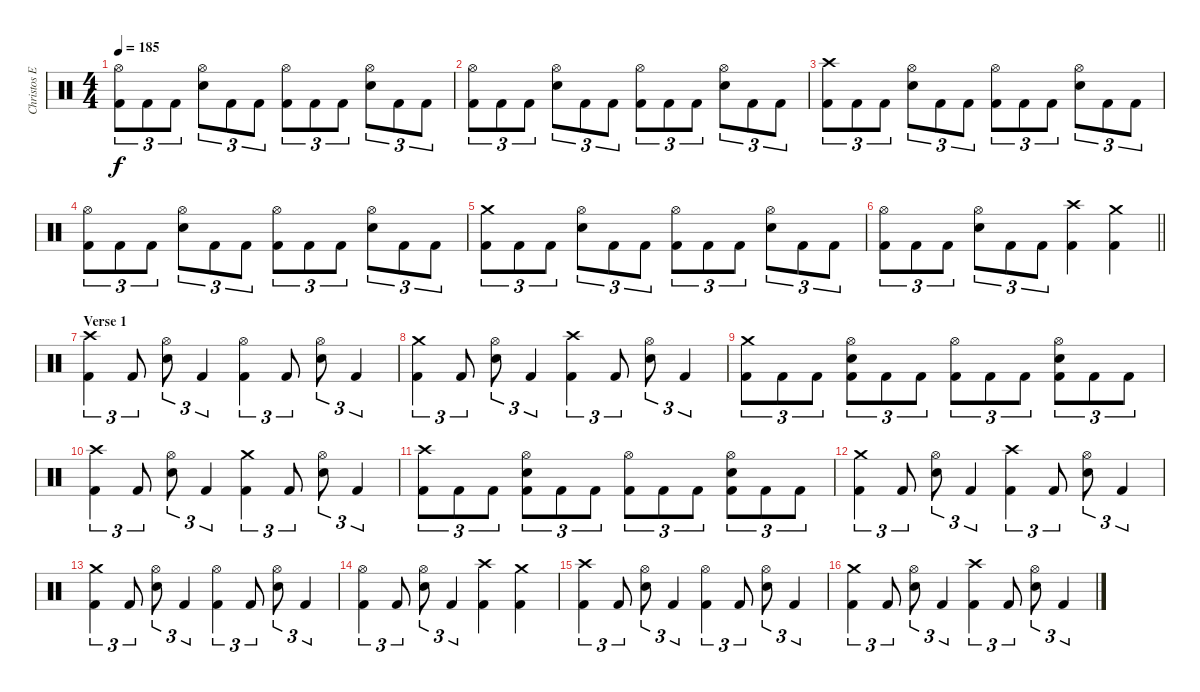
\track ("Christos Ephitimiadis (drums)" "Christos E") {instrument percussion}
\staff {score}
\articulation defaults
\ts (4 4)
\tempo 185
\clef neutral
\ks c
("Hi-Hat (open)" "Kick (hit) 2").8{tu (3 2) dy f} "Kick (hit) 2".8{tu (3 2)} "Kick (hit) 2".8{tu (3 2)} ("Hi-Hat (open)" "Snare (hit) 2").8{tu (3 2)} "Kick (hit) 2".8{tu (3 2)} "Kick (hit) 2".8{tu (3 2)} ("Hi-Hat (open)" "Kick (hit) 2").8{tu (3 2)} "Kick (hit) 2".8{tu (3 2)} "Kick (hit) 2".8{tu (3 2)} ("Hi-Hat (open)" "Snare (hit) 2").8{tu (3 2)} "Kick (hit) 2".8{tu (3 2)} "Kick (hit) 2".8{tu (3 2)} |
("Hi-Hat (open)" "Kick (hit) 2").8{tu (3 2)} "Kick (hit) 2".8{tu (3 2)} "Kick (hit) 2".8{tu (3 2)} ("Hi-Hat (open)" "Snare (hit) 2").8{tu (3 2)} "Kick (hit) 2".8{tu (3 2)} "Kick (hit) 2".8{tu (3 2)} ("Hi-Hat (open)" "Kick (hit) 2").8{tu (3 2)} "Kick (hit) 2".8{tu (3 2)} "Kick (hit) 2".8{tu (3 2)} ("Hi-Hat (open)" "Snare (hit) 2").8{tu (3 2)} "Kick (hit) 2".8{tu (3 2)} "Kick (hit) 2".8{tu (3 2)} |
("Crash high (hit)" "Kick (hit) 2").8{tu (3 2)} "Kick (hit) 2".8{tu (3 2)} "Kick (hit) 2".8{tu (3 2)} ("Hi-Hat (open)" "Snare (hit) 2").8{tu (3 2)} "Kick (hit) 2".8{tu (3 2)} "Kick (hit) 2".8{tu (3 2)} ("Hi-Hat (open)" "Kick (hit) 2").8{tu (3 2)} "Kick (hit) 2".8{tu (3 2)} "Kick (hit) 2".8{tu (3 2)} ("Hi-Hat (open)" "Snare (hit) 2").8{tu (3 2)} "Kick (hit) 2".8{tu (3 2)} "Kick (hit) 2".8{tu (3 2)} |
("Hi-Hat (open)" "Kick (hit) 2").8{tu (3 2)} "Kick (hit) 2".8{tu (3 2)} "Kick (hit) 2".8{tu (3 2)} ("Hi-Hat (open)" "Snare (hit) 2").8{tu (3 2)} "Kick (hit) 2".8{tu (3 2)} "Kick (hit) 2".8{tu (3 2)} ("Hi-Hat (open)" "Kick (hit) 2").8{tu (3 2)} "Kick (hit) 2".8{tu (3 2)} "Kick (hit) 2".8{tu (3 2)} ("Hi-Hat (open)" "Snare (hit) 2").8{tu (3 2)} "Kick (hit) 2".8{tu (3 2)} "Kick (hit) 2".8{tu (3 2)} |
("Crash medium (hit)" "Kick (hit) 2").8{tu (3 2)} "Kick (hit) 2".8{tu (3 2)} "Kick (hit) 2".8{tu (3 2)} ("Hi-Hat (open)" "Snare (hit) 2").8{tu (3 2)} "Kick (hit) 2".8{tu (3 2)} "Kick (hit) 2".8{tu (3 2)} ("Hi-Hat (open)" "Kick (hit) 2").8{tu (3 2)} "Kick (hit) 2".8{tu (3 2)} "Kick (hit) 2".8{tu (3 2)} ("Hi-Hat (open)" "Snare (hit) 2").8{tu (3 2)} "Kick (hit) 2".8{tu (3 2)} "Kick (hit) 2".8{tu (3 2)} |
\barLineRight lightlight
("Hi-Hat (open)" "Kick (hit) 2").8{tu (3 2)} "Kick (hit) 2".8{tu (3 2)} "Kick (hit) 2".8{tu (3 2)} ("Hi-Hat (open)" "Snare (hit) 2").8{tu (3 2)} "Kick (hit) 2".8{tu (3 2)} "Kick (hit) 2".8{tu (3 2)} ("Crash high (hit)" "Kick (hit) 2").4 ("Crash medium (hit)" "Kick (hit) 2").4 |
\section ("" "Verse 1")
("Crash high (hit)" "Kick (hit) 2").4{tu (3 2)} "Kick (hit) 2".8{tu (3 2)} ("Hi-Hat (open)" "Snare (hit) 2").8{tu (3 2)} "Kick (hit) 2".4{tu (3 2)} ("Hi-Hat (open)" "Kick (hit) 2").4{tu (3 2)} "Kick (hit) 2".8{tu (3 2)} ("Hi-Hat (open)" "Snare (hit) 2").8{tu (3 2)} "Kick (hit) 2".4{tu (3 2)} |
("Crash medium (hit)" "Kick (hit) 2").4{tu (3 2)} "Kick (hit) 2".8{tu (3 2)} ("Hi-Hat (open)" "Snare (hit) 2").8{tu (3 2)} "Kick (hit) 2".4{tu (3 2)} ("Crash high (hit)" "Kick (hit) 2").4{tu (3 2)} "Kick (hit) 2".8{tu (3 2)} ("Hi-Hat (open)" "Snare (hit) 2").8{tu (3 2)} "Kick (hit) 2".4{tu (3 2)} |
("Crash medium (hit)" "Kick (hit) 2").8{tu (3 2)} "Kick (hit) 2".8{tu (3 2)} "Kick (hit) 2".8{tu (3 2)} ("Hi-Hat (open)" "Snare (hit) 2" "Kick (hit) 2").8{tu (3 2)} "Kick (hit) 2".8{tu (3 2)} "Kick (hit) 2".8{tu (3 2)} ("Hi-Hat (open)" "Kick (hit) 2").8{tu (3 2)} "Kick (hit) 2".8{tu (3 2)} "Kick (hit) 2".8{tu (3 2)} ("Hi-Hat (open)" "Snare (hit) 2" "Kick (hit) 2").8{tu (3 2)} "Kick (hit) 2".8{tu (3 2)} "Kick (hit) 2".8{tu (3 2)} |
("Crash high (hit)" "Kick (hit) 2").4{tu (3 2)} "Kick (hit) 2".8{tu (3 2)} ("Hi-Hat (open)" "Snare (hit) 2").8{tu (3 2)} "Kick (hit) 2".4{tu (3 2)} ("Crash medium (hit)" "Kick (hit) 2").4{tu (3 2)} "Kick (hit) 2".8{tu (3 2)} ("Hi-Hat (open)" "Snare (hit) 2").8{tu (3 2)} "Kick (hit) 2".4{tu (3 2)} |
("Crash high (hit)" "Kick (hit) 2").8{tu (3 2)} "Kick (hit) 2".8{tu (3 2)} "Kick (hit) 2".8{tu (3 2)} ("Hi-Hat (open)" "Snare (hit) 2" "Kick (hit) 2").8{tu (3 2)} "Kick (hit) 2".8{tu (3 2)} "Kick (hit) 2".8{tu (3 2)} ("Hi-Hat (open)" "Kick (hit) 2").8{tu (3 2)} "Kick (hit) 2".8{tu (3 2)} "Kick (hit) 2".8{tu (3 2)} ("Hi-Hat (open)" "Snare (hit) 2" "Kick (hit) 2").8{tu (3 2)} "Kick (hit) 2".8{tu (3 2)} "Kick (hit) 2".8{tu (3 2)} |
("Crash medium (hit)" "Kick (hit) 2").4{tu (3 2)} "Kick (hit) 2".8{tu (3 2)} ("Hi-Hat (open)" "Snare (hit) 2").8{tu (3 2)} "Kick (hit) 2".4{tu (3 2)} ("Crash high (hit)" "Kick (hit) 2").4{tu (3 2)} "Kick (hit) 2".8{tu (3 2)} ("Hi-Hat (open)" "Snare (hit) 2").8{tu (3 2)} "Kick (hit) 2".4{tu (3 2)} |
("Crash medium (hit)" "Kick (hit) 2").4{tu (3 2)} "Kick (hit) 2".8{tu (3 2)} ("Hi-Hat (open)" "Snare (hit) 2").8{tu (3 2)} "Kick (hit) 2".4{tu (3 2)} ("Hi-Hat (open)" "Kick (hit) 2").4{tu (3 2)} "Kick (hit) 2".8{tu (3 2)} ("Hi-Hat (open)" "Snare (hit) 2").8{tu (3 2)} "Kick (hit) 2".4{tu (3 2)} |
("Hi-Hat (open)" "Kick (hit) 2").4{tu (3 2)} "Kick (hit) 2".8{tu (3 2)} ("Hi-Hat (open)" "Snare (hit) 2").8{tu (3 2)} "Kick (hit) 2".4{tu (3 2)} ("Crash high (hit)" "Kick (hit) 2").4 ("Crash medium (hit)" "Kick (hit) 2").4 |
("Crash high (hit)" "Kick (hit) 2").4{tu (3 2)} "Kick (hit) 2".8{tu (3 2)} ("Hi-Hat (open)" "Snare (hit) 2").8{tu (3 2)} "Kick (hit) 2".4{tu (3 2)} ("Hi-Hat (open)" "Kick (hit) 2").4{tu (3 2)} "Kick (hit) 2".8{tu (3 2)} ("Hi-Hat (open)" "Snare (hit) 2").8{tu (3 2)} "Kick (hit) 2".4{tu (3 2)} |
("Crash medium (hit)" "Kick (hit) 2").4{tu (3 2)} "Kick (hit) 2".8{tu (3 2)} ("Hi-Hat (open)" "Snare (hit) 2").8{tu (3 2)} "Kick (hit) 2".4{tu (3 2)} ("Crash high (hit)" "Kick (hit) 2").4{tu (3 2)} "Kick (hit) 2".8{tu (3 2)} ("Hi-Hat (open)" "Snare (hit) 2").8{tu (3 2)} "Kick (hit) 2".4{tu (3 2)}
